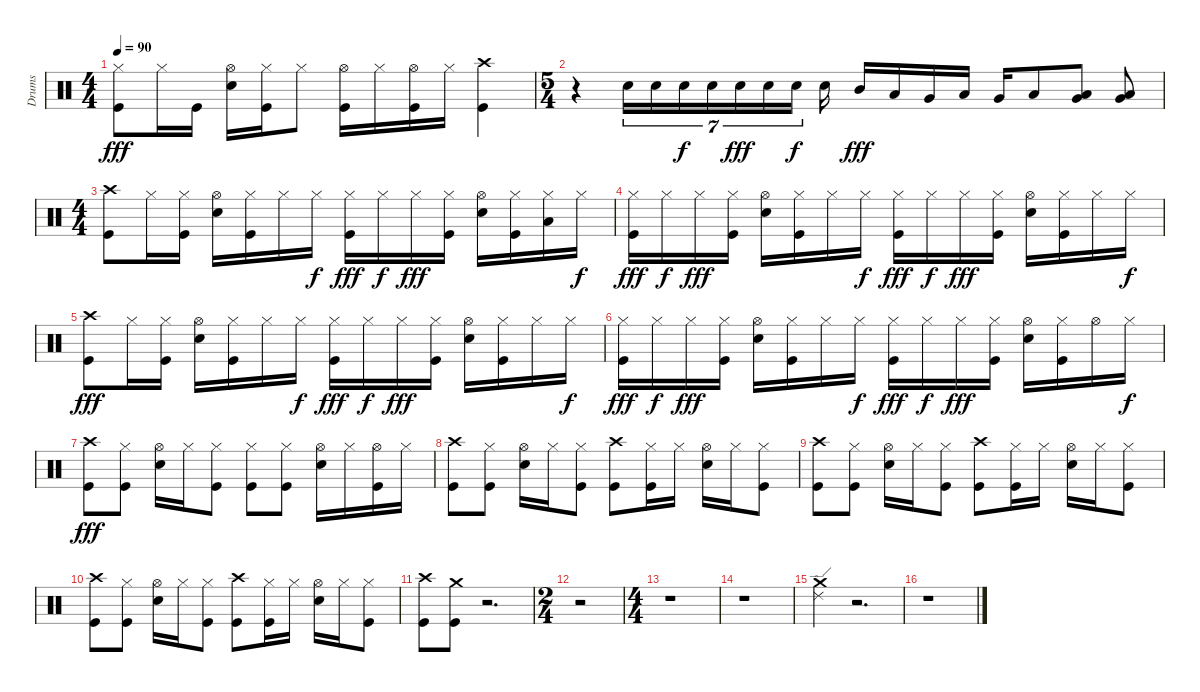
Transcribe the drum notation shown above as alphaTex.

\track ("Drums" "Drums") {instrument percussion}
\staff {score}
\articulation defaults
\ts (4 4)
\tempo 90
\clef neutral
\ks c
("Hi-Hat (closed)" "Kick (hit)").8{dy fff} "Hi-Hat (closed)".16 "Kick (hit)".16 ("Hi-Hat (open)" "Snare (hit) 2").16 ("Hi-Hat (closed)" "Kick (hit)").16 "Hi-Hat (closed)".8 ("Hi-Hat (open)" "Kick (hit)").16 "Hi-Hat (closed)".16 ("Hi-Hat (open)" "Kick (hit)").16 "Hi-Hat (closed)".16 ("Crash high (hit)" "Kick (hit)").4 |
\ts (5 4)
r.4 "Snare (hit) 2".16{tu (7 4)} "Snare (hit) 2".16{tu (7 4)} "Snare (hit) 2".16{tu (7 4) dy f} "Snare (hit) 2".16{tu (7 4)} "Snare (hit) 2".16{tu (7 4) dy fff} "Snare (hit) 2".16{tu (7 4)} "Snare (hit) 2".16{tu (7 4) dy f} "Snare (hit) 2".16 "Mid Tom (hit)".16{dy fff} "Low Tom (hit)".16 "Very Low Tom (hit)".16 "Low Tom (hit)".16 "Very Low Tom (hit)".16 "Low Floor Tom (hit)".8 ("Very Low Tom (hit)" "Low Floor Tom (hit)").8 ("Very Low Tom (hit)" "Low Floor Tom (hit)").8 |
\ts (4 4)
("Crash high (hit)" "Kick (hit)").8 "Hi-Hat (closed)".16 ("Hi-Hat (closed)" "Kick (hit)").16 ("Hi-Hat (open)" "Snare (hit) 2").16 ("Hi-Hat (closed)" "Kick (hit)").16 "Hi-Hat (closed)".16 "Hi-Hat (closed)".16{dy f} ("Hi-Hat (closed)" "Kick (hit)").16{dy fff} "Hi-Hat (closed)".16{dy f} "Hi-Hat (closed)".16{dy fff} ("Hi-Hat (closed)" "Kick (hit)").16 ("Hi-Hat (open)" "Snare (hit) 2").16 ("Hi-Hat (closed)" "Kick (hit)").16 ("Hi-Hat (closed)" "Low Tom (hit)").16 "Hi-Hat (closed)".16{dy f} |
("Hi-Hat (closed)" "Kick (hit)").16{dy fff} "Hi-Hat (closed)".16{dy f} "Hi-Hat (closed)".16{dy fff} ("Hi-Hat (closed)" "Kick (hit)").16 ("Hi-Hat (open)" "Snare (hit) 2").16 ("Hi-Hat (closed)" "Kick (hit)").16 "Hi-Hat (closed)".16 "Hi-Hat (closed)".16{dy f} ("Hi-Hat (closed)" "Kick (hit)").16{dy fff} "Hi-Hat (closed)".16{dy f} "Hi-Hat (closed)".16{dy fff} ("Hi-Hat (closed)" "Kick (hit)").16 ("Hi-Hat (open)" "Snare (hit) 2").16 ("Hi-Hat (closed)" "Kick (hit)").16 "Hi-Hat (closed)".16 "Hi-Hat (closed)".16{dy f} |
("Crash high (hit)" "Kick (hit)").8{dy fff} "Hi-Hat (closed)".16 ("Hi-Hat (closed)" "Kick (hit)").16 ("Hi-Hat (open)" "Snare (hit) 2").16 ("Hi-Hat (closed)" "Kick (hit)").16 "Hi-Hat (closed)".16 "Hi-Hat (closed)".16{dy f} ("Hi-Hat (closed)" "Kick (hit)").16{dy fff} "Hi-Hat (closed)".16{dy f} "Hi-Hat (closed)".16{dy fff} ("Hi-Hat (closed)" "Kick (hit)").16 ("Hi-Hat (open)" "Snare (hit) 2").16 ("Hi-Hat (closed)" "Kick (hit)").16 "Hi-Hat (closed)".16 "Hi-Hat (closed)".16{dy f} |
("Hi-Hat (closed)" "Kick (hit)").16{dy fff} "Hi-Hat (closed)".16{dy f} "Hi-Hat (closed)".16{dy fff} ("Hi-Hat (closed)" "Kick (hit)").16 ("Hi-Hat (open)" "Snare (hit) 2").16 ("Hi-Hat (closed)" "Kick (hit)").16 "Hi-Hat (closed)".16 "Hi-Hat (closed)".16{dy f} ("Hi-Hat (closed)" "Kick (hit)").16{dy fff} "Hi-Hat (closed)".16{dy f} "Hi-Hat (closed)".16{dy fff} ("Hi-Hat (closed)" "Kick (hit)").16 ("Hi-Hat (open)" "Snare (hit) 2").16 ("Hi-Hat (closed)" "Kick (hit)").16 "Hi-Hat (open)".16 "Hi-Hat (closed)".16{dy f} |
("Crash high (hit)" "Kick (hit)").8{dy fff} ("Hi-Hat (closed)" "Kick (hit)").8 ("Hi-Hat (open)" "Snare (hit) 2").16 "Hi-Hat (closed)".16 ("Hi-Hat (closed)" "Kick (hit)").8 ("Hi-Hat (closed)" "Kick (hit)").8 ("Hi-Hat (closed)" "Kick (hit)").8 ("Hi-Hat (open)" "Snare (hit) 2").16 "Hi-Hat (closed)".16 ("Hi-Hat (open)" "Kick (hit)").16 "Hi-Hat (closed)".16 |
("Crash high (hit)" "Kick (hit)").8 ("Hi-Hat (closed)" "Kick (hit)").8 ("Hi-Hat (open)" "Snare (hit) 2").16 "Hi-Hat (closed)".16 ("Hi-Hat (closed)" "Kick (hit)").8 ("Crash high (hit)" "Kick (hit)").8 ("Hi-Hat (closed)" "Kick (hit)").16 "Hi-Hat (closed)".16 ("Hi-Hat (open)" "Snare (hit) 2").16 "Hi-Hat (closed)".16 ("Hi-Hat (closed)" "Kick (hit)").8 |
("Crash high (hit)" "Kick (hit)").8 ("Hi-Hat (closed)" "Kick (hit)").8 ("Hi-Hat (open)" "Snare (hit) 2").16 "Hi-Hat (closed)".16 ("Hi-Hat (closed)" "Kick (hit)").8 ("Crash high (hit)" "Kick (hit)").8 ("Hi-Hat (closed)" "Kick (hit)").16 "Hi-Hat (closed)".16 ("Hi-Hat (open)" "Snare (hit) 2").16 "Hi-Hat (closed)".16 ("Hi-Hat (closed)" "Kick (hit)").8 |
("Crash high (hit)" "Kick (hit)").8 ("Hi-Hat (closed)" "Kick (hit)").8 ("Hi-Hat (open)" "Snare (hit) 2").16 "Hi-Hat (closed)".16 ("Hi-Hat (closed)" "Kick (hit)").8 ("Crash high (hit)" "Kick (hit)").8 ("Hi-Hat (closed)" "Kick (hit)").16 "Hi-Hat (closed)".16 ("Hi-Hat (open)" "Snare (hit) 2").16 "Hi-Hat (closed)".16 ("Hi-Hat (closed)" "Kick (hit)").8 |
("Crash high (hit)" "Kick (hit)").8 ("Crash medium (hit)" "Kick (hit)").8 r.2{d} |
\ts (2 4)
r.2 |
\ts (4 4)
r.1 |
r.1 |
("Ride (edge) 2" "Crash medium (hit)").4 r.2{d} |
r.1
